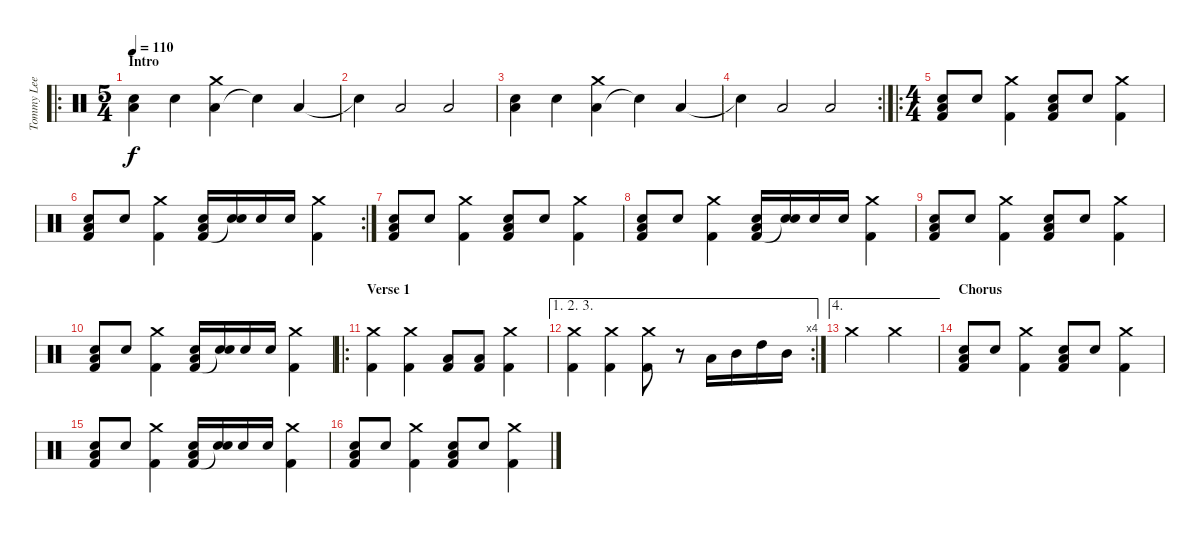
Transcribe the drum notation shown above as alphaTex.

\track ("Tommy Lee" "Tommy Lee") {instrument percussion}
\staff {score}
\articulation defaults
\ro
\ts (5 4)
\section ("" "Intro")
\tempo 110
\clef neutral
\ks c
("Low Floor Tom (hit)" "Electric Snare (hit)").4{dy f} "Electric Snare (hit)".4 ("Low Floor Tom (hit)" "Crash medium (hit)").4 "Snare (hit)"{t}.4 "Low Floor Tom (hit)".4 |
"Snare (hit)"{t}.4 "Low Floor Tom (hit)".2 "Low Floor Tom (hit)".2 |
("Low Floor Tom (hit)" "Electric Snare (hit)").4 "Electric Snare (hit)".4 ("Low Floor Tom (hit)" "Crash medium (hit)").4 "Snare (hit)"{t}.4 "Low Floor Tom (hit)".4 |
\rc 2 "Snare (hit)"{t}.4 "Low Floor Tom (hit)".2 "Low Floor Tom (hit)".2
|
\ro
\ts (4 4)
("Kick (hit) 2" "Low Floor Tom (hit)" "Electric Snare (hit)").8 "Electric Snare (hit)".8 ("Kick (hit) 2" "Crash medium (hit)").4 ("Kick (hit) 2" "Low Floor Tom (hit)" "Electric Snare (hit)").8 "Electric Snare (hit)".8 ("Kick (hit) 2" "Crash medium (hit)").4 |
\rc 2
("Kick (hit) 2" "Low Floor Tom (hit)" "Electric Snare (hit)").8 "Electric Snare (hit)".8 ("Kick (hit) 2" "Crash medium (hit)").4 ("Kick (hit) 2" "Low Floor Tom (hit)" "Electric Snare (hit)").16 ("Snare (hit)"{t} "Electric Snare (hit)").16 "Electric Snare (hit)".16 "Electric Snare (hit)".16 ("Kick (hit) 2" "Crash medium (hit)").4 |
("Kick (hit) 2" "Low Floor Tom (hit)" "Electric Snare (hit)").8 "Electric Snare (hit)".8 ("Kick (hit) 2" "Crash medium (hit)").4 ("Kick (hit) 2" "Low Floor Tom (hit)" "Electric Snare (hit)").8 "Electric Snare (hit)".8 ("Kick (hit) 2" "Crash medium (hit)").4 |
("Kick (hit) 2" "Low Floor Tom (hit)" "Electric Snare (hit)").8 "Electric Snare (hit)".8 ("Kick (hit) 2" "Crash medium (hit)").4 ("Kick (hit) 2" "Low Floor Tom (hit)" "Electric Snare (hit)").16 ("Snare (hit)"{t} "Electric Snare (hit)").16 "Electric Snare (hit)".16 "Electric Snare (hit)".16 ("Kick (hit) 2" "Crash medium (hit)").4 |
("Kick (hit) 2" "Low Floor Tom (hit)" "Electric Snare (hit)").8 "Electric Snare (hit)".8 ("Kick (hit) 2" "Crash medium (hit)").4 ("Kick (hit) 2" "Low Floor Tom (hit)" "Electric Snare (hit)").8 "Electric Snare (hit)".8 ("Kick (hit) 2" "Crash medium (hit)").4 |
("Kick (hit) 2" "Low Floor Tom (hit)" "Electric Snare (hit)").8 "Electric Snare (hit)".8 ("Kick (hit) 2" "Crash medium (hit)").4 ("Kick (hit) 2" "Low Floor Tom (hit)" "Electric Snare (hit)").16 ("Snare (hit)"{t} "Electric Snare (hit)").16 "Electric Snare (hit)".16 "Electric Snare (hit)".16 ("Kick (hit) 2" "Crash medium (hit)").4 |
\ro
\section ("" "Verse 1")
("Kick (hit) 2" "Crash medium (hit)").4 ("Kick (hit) 2" "Crash medium (hit)").4 ("Kick (hit) 2" "Low Floor Tom (hit)").8 ("Kick (hit) 2" "Low Floor Tom (hit)").8 ("Kick (hit) 2" "Crash medium (hit)").4 |
\ae (1 2 3)
\rc 4
("Kick (hit) 2" "Crash medium (hit)").4 ("Kick (hit) 2" "Crash medium (hit)").4 ("Kick (hit) 2" "Crash medium (hit)").8 r.8 "Low Tom (hit)".16 "Mid Tom (hit)".16 "High Tom (hit)".16 "Mid Tom (hit)".16 |
\ae 4 "Crash medium (hit)".2 "Crash medium (hit)".2
|
\section ("" "Chorus")
("Kick (hit) 2" "Low Floor Tom (hit)" "Electric Snare (hit)").8 "Electric Snare (hit)".8 ("Kick (hit) 2" "Crash medium (hit)").4 ("Kick (hit) 2" "Low Floor Tom (hit)" "Electric Snare (hit)").8 "Electric Snare (hit)".8 ("Kick (hit) 2" "Crash medium (hit)").4 |
("Kick (hit) 2" "Low Floor Tom (hit)" "Electric Snare (hit)").8 "Electric Snare (hit)".8 ("Kick (hit) 2" "Crash medium (hit)").4 ("Kick (hit) 2" "Low Floor Tom (hit)" "Electric Snare (hit)").16 ("Snare (hit)"{t} "Electric Snare (hit)").16 "Electric Snare (hit)".16 "Electric Snare (hit)".16 ("Kick (hit) 2" "Crash medium (hit)").4 |
("Kick (hit) 2" "Low Floor Tom (hit)" "Electric Snare (hit)").8 "Electric Snare (hit)".8 ("Kick (hit) 2" "Crash medium (hit)").4 ("Kick (hit) 2" "Low Floor Tom (hit)" "Electric Snare (hit)").8 "Electric Snare (hit)".8 ("Kick (hit) 2" "Crash medium (hit)").4
